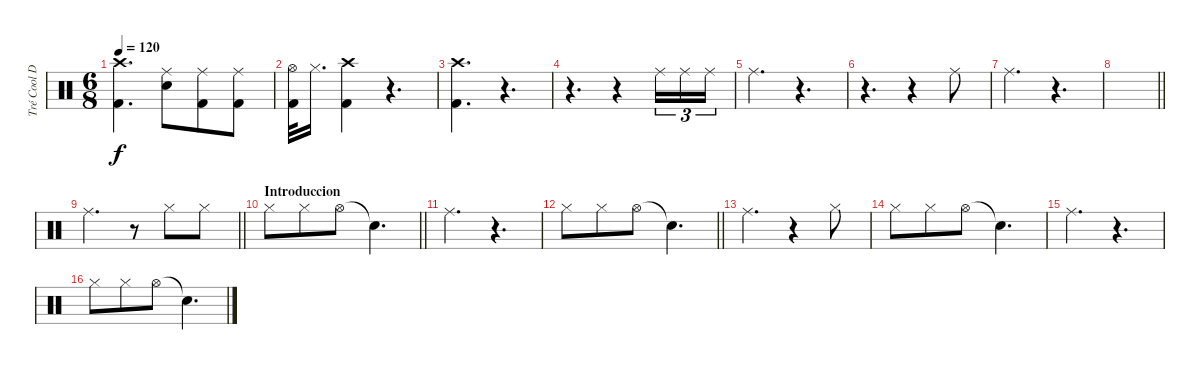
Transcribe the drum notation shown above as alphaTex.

\track ("Tré Cool Drums" "Tré Cool D") {instrument percussion}
\staff {score}
\articulation defaults
\ts (6 8)
\tempo 120
\clef neutral
\ks c
("Crash high (hit)" "Kick (hit) 2").4{d dy f} ("Ride (middle)" "Snare (hit) 2").8 ("Ride (middle)" "Kick (hit) 2").8 ("Ride (middle)" "Kick (hit) 2").8 |
("Hi-Hat (open)" "Kick (hit) 2").32 "Hi-Hat (closed)".16{d} ("Crash high (hit)" "Kick (hit) 2").4 r.4{d} |
("Crash high (hit)" "Kick (hit) 2").4{d} r.4{d} |
r.4{d} r.4 "Ride (middle)".16{tu (3 2)} "Ride (middle)".16{tu (3 2)} "Ride (middle)".16{tu (3 2)} |
"Ride (middle)".4{d} r.4{d} |
r.4{d} r.4 "Ride (middle)".8 |
"Ride (middle)".4{d} r.4{d} |
\barLineRight lightlight
|
\section ("" "")
\barLineRight lightlight "Ride (middle)".4{d}
r.8 "Hi-Hat (closed)".8 "Hi-Hat (closed)".8 |
\section ("" "Introduccion")
\barLineRight lightlight "Hi-Hat (closed)".8 "Hi-Hat (closed)".8 "Hi-Hat (open)".8 "Snare (hit)"{t}.4{d}
|
\section ("" "")
"Ride (middle)".4{d} r.4{d} |
\barLineRight lightlight "Hi-Hat (closed)".8 "Hi-Hat (closed)".8 "Hi-Hat (open)".8 "Snare (hit)"{t}.4{d}
|
\section ("" "")
"Ride (middle)".4{d} r.4 "Hi-Hat (closed)".8 |
"Hi-Hat (closed)".8 "Hi-Hat (closed)".8 "Hi-Hat (open)".8 "Snare (hit)"{t}.4{d} |
"Ride (middle)".4{d} r.4{d} |
"Hi-Hat (closed)".8 "Hi-Hat (closed)".8 "Hi-Hat (open)".8 "Snare (hit)"{t}.4{d}
